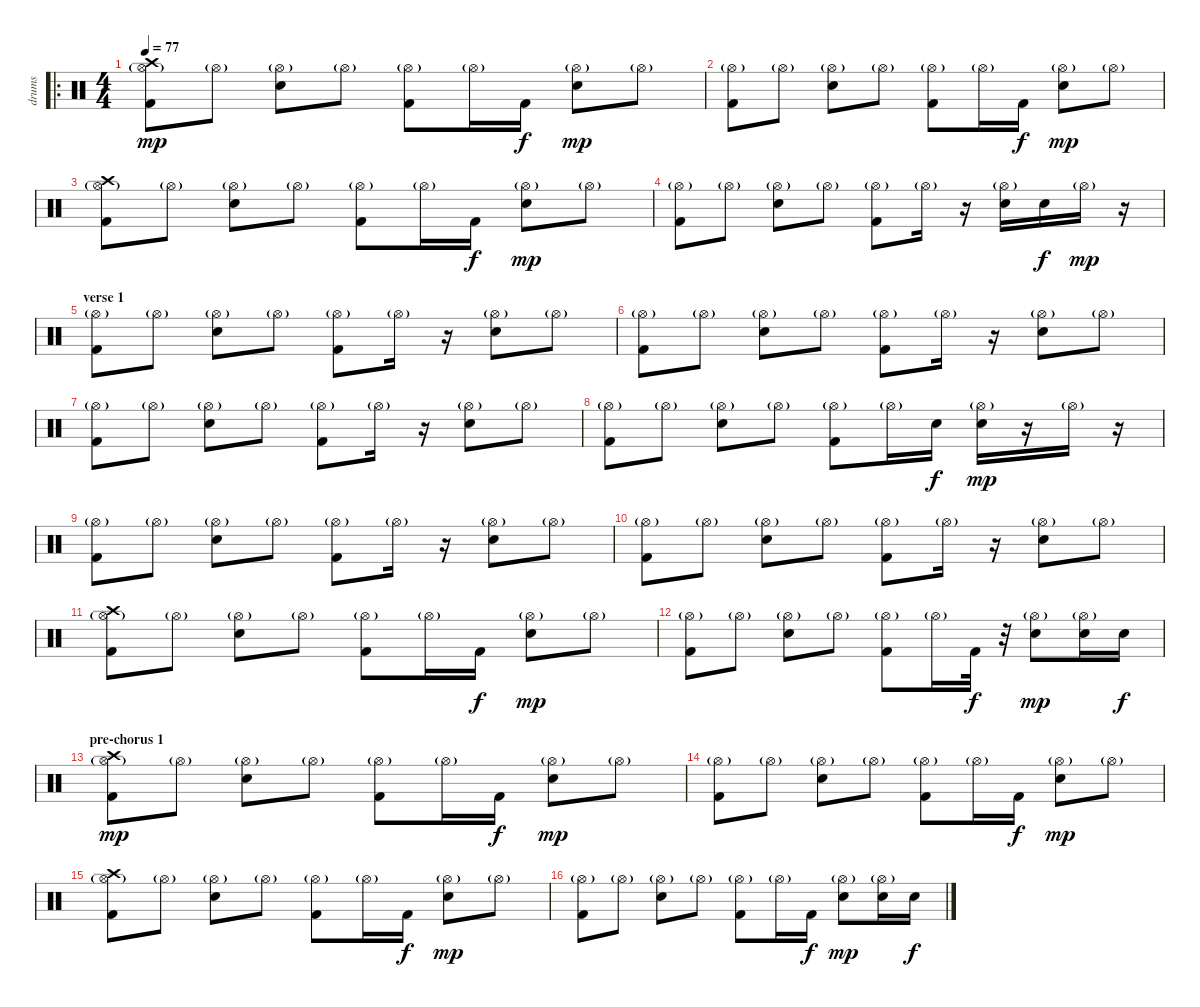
\track ("drums" "drums") {instrument percussion}
\staff {score}
\articulation defaults
\ro
\ts (4 4)
\tempo 77
\clef neutral
\ks c
("Kick (hit) 2" "Hi-Hat (open)"{g} "Crash high (hit)").8{dy mp} "Hi-Hat (open)"{g}.8 ("Snare (hit) 2" "Hi-Hat (open)"{g}).8 "Hi-Hat (open)"{g}.8 ("Kick (hit) 2" "Hi-Hat (open)"{g}).8 "Hi-Hat (open)"{g}.16 "Kick (hit) 2".16{dy f} ("Snare (hit) 2" "Hi-Hat (open)"{g}).8{dy mp} "Hi-Hat (open)"{g}.8 |
("Kick (hit) 2" "Hi-Hat (open)"{g}).8 "Hi-Hat (open)"{g}.8 ("Snare (hit) 2" "Hi-Hat (open)"{g}).8 "Hi-Hat (open)"{g}.8 ("Kick (hit) 2" "Hi-Hat (open)"{g}).8 "Hi-Hat (open)"{g}.16 "Kick (hit) 2".16{dy f} ("Snare (hit) 2" "Hi-Hat (open)"{g}).8{dy mp} "Hi-Hat (open)"{g}.8 |
("Kick (hit) 2" "Hi-Hat (open)"{g} "Crash high (hit)").8 "Hi-Hat (open)"{g}.8 ("Snare (hit) 2" "Hi-Hat (open)"{g}).8 "Hi-Hat (open)"{g}.8 ("Kick (hit) 2" "Hi-Hat (open)"{g}).8 "Hi-Hat (open)"{g}.16 "Kick (hit) 2".16{dy f} ("Snare (hit) 2" "Hi-Hat (open)"{g}).8{dy mp} "Hi-Hat (open)"{g}.8 |
("Kick (hit) 2" "Hi-Hat (open)"{g}).8 "Hi-Hat (open)"{g}.8 ("Snare (hit) 2" "Hi-Hat (open)"{g}).8 "Hi-Hat (open)"{g}.8 ("Kick (hit) 2" "Hi-Hat (open)"{g}).8 "Hi-Hat (open)"{g}.16 r.16 ("Snare (hit) 2" "Hi-Hat (open)"{g}).16 "Snare (hit) 2".16{dy f} "Hi-Hat (open)"{g}.16{dy mp} r.16 |
\section ("" "verse 1")
("Kick (hit) 2" "Hi-Hat (open)"{g}).8{volume 10} "Hi-Hat (open)"{g}.8 ("Snare (hit) 2" "Hi-Hat (open)"{g}).8 "Hi-Hat (open)"{g}.8 ("Kick (hit) 2" "Hi-Hat (open)"{g}).8 "Hi-Hat (open)"{g}.16 r.16 ("Snare (hit) 2" "Hi-Hat (open)"{g}).8 "Hi-Hat (open)"{g}.8 |
("Kick (hit) 2" "Hi-Hat (open)"{g}).8 "Hi-Hat (open)"{g}.8 ("Snare (hit) 2" "Hi-Hat (open)"{g}).8 "Hi-Hat (open)"{g}.8 ("Kick (hit) 2" "Hi-Hat (open)"{g}).8 "Hi-Hat (open)"{g}.16 r.16 ("Snare (hit) 2" "Hi-Hat (open)"{g}).8 "Hi-Hat (open)"{g}.8 |
("Kick (hit) 2" "Hi-Hat (open)"{g}).8 "Hi-Hat (open)"{g}.8 ("Snare (hit) 2" "Hi-Hat (open)"{g}).8 "Hi-Hat (open)"{g}.8 ("Kick (hit) 2" "Hi-Hat (open)"{g}).8 "Hi-Hat (open)"{g}.16 r.16 ("Snare (hit) 2" "Hi-Hat (open)"{g}).8 "Hi-Hat (open)"{g}.8 |
("Kick (hit) 2" "Hi-Hat (open)"{g}).8 "Hi-Hat (open)"{g}.8 ("Snare (hit) 2" "Hi-Hat (open)"{g}).8 "Hi-Hat (open)"{g}.8 ("Kick (hit) 2" "Hi-Hat (open)"{g}).8 "Hi-Hat (open)"{g}.16 "Snare (hit) 2".16{dy f} ("Snare (hit) 2" "Hi-Hat (open)"{g}).16{dy mp} r.16 "Hi-Hat (open)"{g}.16 r.16 |
("Kick (hit) 2" "Hi-Hat (open)"{g}).8 "Hi-Hat (open)"{g}.8 ("Snare (hit) 2" "Hi-Hat (open)"{g}).8 "Hi-Hat (open)"{g}.8 ("Kick (hit) 2" "Hi-Hat (open)"{g}).8 "Hi-Hat (open)"{g}.16 r.16 ("Snare (hit) 2" "Hi-Hat (open)"{g}).8 "Hi-Hat (open)"{g}.8 |
("Kick (hit) 2" "Hi-Hat (open)"{g}).8 "Hi-Hat (open)"{g}.8 ("Snare (hit) 2" "Hi-Hat (open)"{g}).8 "Hi-Hat (open)"{g}.8 ("Kick (hit) 2" "Hi-Hat (open)"{g}).8 "Hi-Hat (open)"{g}.16 r.16 ("Snare (hit) 2" "Hi-Hat (open)"{g}).8 "Hi-Hat (open)"{g}.8 |
("Kick (hit) 2" "Hi-Hat (open)"{g} "Crash high (hit)").8 "Hi-Hat (open)"{g}.8 ("Snare (hit) 2" "Hi-Hat (open)"{g}).8 "Hi-Hat (open)"{g}.8 ("Kick (hit) 2" "Hi-Hat (open)"{g}).8 "Hi-Hat (open)"{g}.16 "Kick (hit) 2".16{dy f} ("Snare (hit) 2" "Hi-Hat (open)"{g}).8{dy mp} "Hi-Hat (open)"{g}.8 |
("Kick (hit) 2" "Hi-Hat (open)"{g}).8 "Hi-Hat (open)"{g}.8 ("Snare (hit) 2" "Hi-Hat (open)"{g}).8 "Hi-Hat (open)"{g}.8 ("Kick (hit) 2" "Hi-Hat (open)"{g}).8 "Hi-Hat (open)"{g}.16 "Kick (hit) 2".32{dy f} r.32 ("Snare (hit) 2" "Hi-Hat (open)"{g}).8{dy mp} ("Snare (hit) 2"{tr (38 16)} "Hi-Hat (open)"{g}).16 "Snare (hit) 2".16{dy f} |
\section ("" "pre-chorus 1")
("Kick (hit) 2" "Hi-Hat (open)"{g} "Crash high (hit)").8{dy mp volume 12} "Hi-Hat (open)"{g}.8 ("Snare (hit) 2" "Hi-Hat (open)"{g}).8 "Hi-Hat (open)"{g}.8 ("Kick (hit) 2" "Hi-Hat (open)"{g}).8 "Hi-Hat (open)"{g}.16 "Kick (hit) 2".16{dy f} ("Snare (hit) 2" "Hi-Hat (open)"{g}).8{dy mp} "Hi-Hat (open)"{g}.8 |
("Kick (hit) 2" "Hi-Hat (open)"{g}).8 "Hi-Hat (open)"{g}.8 ("Snare (hit) 2" "Hi-Hat (open)"{g}).8 "Hi-Hat (open)"{g}.8 ("Kick (hit) 2" "Hi-Hat (open)"{g}).8 "Hi-Hat (open)"{g}.16 "Kick (hit) 2".16{dy f} ("Snare (hit) 2" "Hi-Hat (open)"{g}).8{dy mp} "Hi-Hat (open)"{g}.8 |
("Kick (hit) 2" "Hi-Hat (open)"{g} "Crash high (hit)").8 "Hi-Hat (open)"{g}.8 ("Snare (hit) 2" "Hi-Hat (open)"{g}).8 "Hi-Hat (open)"{g}.8 ("Kick (hit) 2" "Hi-Hat (open)"{g}).8 "Hi-Hat (open)"{g}.16 "Kick (hit) 2".16{dy f} ("Snare (hit) 2" "Hi-Hat (open)"{g}).8{dy mp} "Hi-Hat (open)"{g}.8 |
("Kick (hit) 2" "Hi-Hat (open)"{g}).8 "Hi-Hat (open)"{g}.8 ("Snare (hit) 2" "Hi-Hat (open)"{g}).8 "Hi-Hat (open)"{g}.8 ("Kick (hit) 2" "Hi-Hat (open)"{g}).8 "Hi-Hat (open)"{g}.16 "Kick (hit) 2".16{dy f} ("Snare (hit) 2" "Hi-Hat (open)"{g}).8{dy mp} ("Snare (hit) 2"{tr (38 16)} "Hi-Hat (open)"{g}).16 "Snare (hit) 2".16{dy f}
